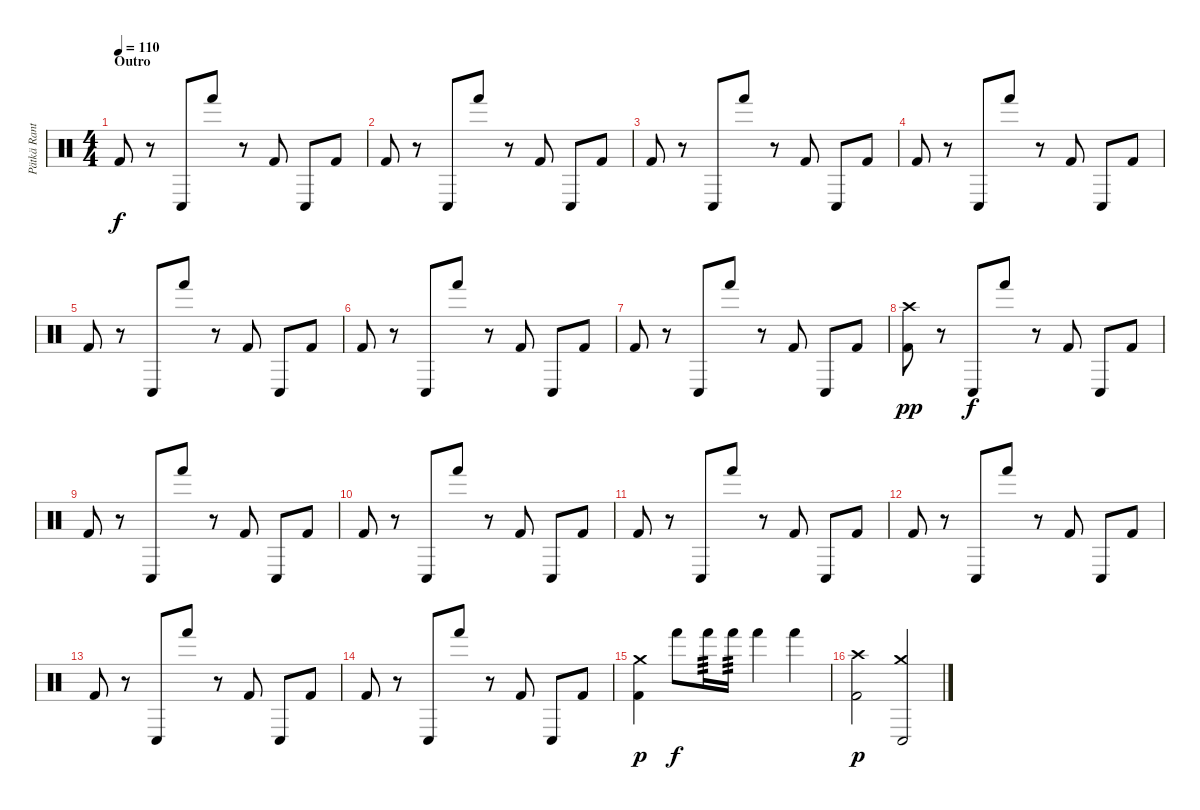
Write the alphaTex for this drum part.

\track ("Pätkä Rantala (Drums)" "Pätkä Rant") {instrument percussion}
\staff {score}
\articulation defaults
\ts (4 4)
\section ("" "Outro")
\tempo 110
\clef neutral
\ks c "Kick (hit) 2".8{dy f}
r.8 "Conga low (hit)".8 "Hand (hit)".8 r.8 "Kick (hit) 2".8 "Conga low (hit)".8 "Kick (hit) 2".8 |
"Kick (hit) 2".8 r.8 "Conga low (hit)".8 "Hand (hit)".8 r.8 "Kick (hit) 2".8 "Conga low (hit)".8 "Kick (hit) 2".8 |
"Kick (hit) 2".8 r.8 "Conga low (hit)".8 "Hand (hit)".8 r.8 "Kick (hit) 2".8 "Conga low (hit)".8 "Kick (hit) 2".8 |
"Kick (hit) 2".8 r.8 "Conga low (hit)".8 "Hand (hit)".8 r.8 "Kick (hit) 2".8 "Conga low (hit)".8 "Kick (hit) 2".8 |
"Kick (hit) 2".8 r.8 "Conga low (hit)".8 "Hand (hit)".8 r.8 "Kick (hit) 2".8 "Conga low (hit)".8 "Kick (hit) 2".8 |
"Kick (hit) 2".8 r.8 "Conga low (hit)".8 "Hand (hit)".8 r.8 "Kick (hit) 2".8 "Conga low (hit)".8 "Kick (hit) 2".8 |
"Kick (hit) 2".8 r.8 "Conga low (hit)".8 "Hand (hit)".8 r.8 "Kick (hit) 2".8 "Conga low (hit)".8 "Kick (hit) 2".8 |
("Crash high (hit)" "Kick (hit) 2").8{dy pp} r.8 "Conga low (hit)".8{dy f} "Hand (hit)".8 r.8 "Kick (hit) 2".8 "Conga low (hit)".8 "Kick (hit) 2".8 |
"Kick (hit) 2".8 r.8 "Conga low (hit)".8 "Hand (hit)".8 r.8 "Kick (hit) 2".8 "Conga low (hit)".8 "Kick (hit) 2".8 |
"Kick (hit) 2".8 r.8 "Conga low (hit)".8 "Hand (hit)".8 r.8 "Kick (hit) 2".8 "Conga low (hit)".8 "Kick (hit) 2".8 |
"Kick (hit) 2".8 r.8 "Conga low (hit)".8 "Hand (hit)".8 r.8 "Kick (hit) 2".8 "Conga low (hit)".8 "Kick (hit) 2".8 |
"Kick (hit) 2".8 r.8 "Conga low (hit)".8 "Hand (hit)".8 r.8 "Kick (hit) 2".8 "Conga low (hit)".8 "Kick (hit) 2".8 |
"Kick (hit) 2".8 r.8 "Conga low (hit)".8 "Hand (hit)".8 r.8 "Kick (hit) 2".8 "Conga low (hit)".8 "Kick (hit) 2".8 |
"Kick (hit) 2".8 r.8 "Conga low (hit)".8 "Hand (hit)".8 r.8 "Kick (hit) 2".8 "Conga low (hit)".8 "Kick (hit) 2".8 |
("Crash medium (hit)" "Kick (hit) 2").4{dy p} "Hand (hit)".8{dy f} "Hand (hit)".16{tp 3} "Hand (hit)".16{tp 3} "Hand (hit)".4 "Hand (hit)".4 |
("Crash high (hit)" "Kick (hit) 2").2{dy p} ("Crash medium (hit)" "Conga low (hit)").2
